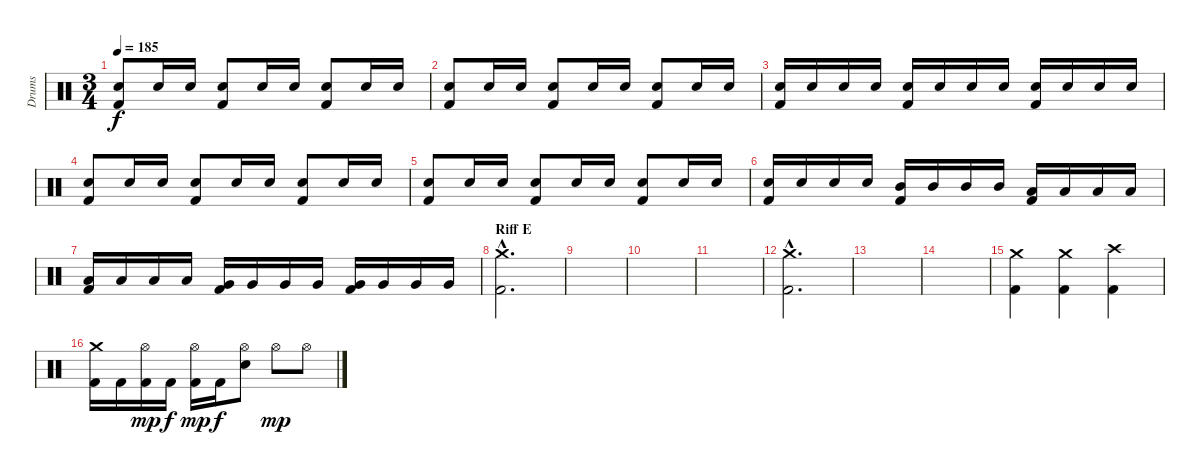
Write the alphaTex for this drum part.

\track ("Drums" "Drums") {instrument percussion}
\staff {score}
\articulation defaults
\ts (3 4)
\tempo 185
\clef neutral
\ks c
("Electric Snare (hit)" "Kick (hit) 2").8{dy f} "Electric Snare (hit)".16 "Electric Snare (hit)".16 ("Electric Snare (hit)" "Kick (hit) 2").8 "Electric Snare (hit)".16 "Electric Snare (hit)".16 ("Electric Snare (hit)" "Kick (hit) 2").8 "Electric Snare (hit)".16 "Electric Snare (hit)".16 |
("Electric Snare (hit)" "Kick (hit) 2").8 "Electric Snare (hit)".16 "Electric Snare (hit)".16 ("Electric Snare (hit)" "Kick (hit) 2").8 "Electric Snare (hit)".16 "Electric Snare (hit)".16 ("Electric Snare (hit)" "Kick (hit) 2").8 "Electric Snare (hit)".16 "Electric Snare (hit)".16 |
("Electric Snare (hit)" "Kick (hit) 2").16 "Electric Snare (hit)".16 "Electric Snare (hit)".16 "Electric Snare (hit)".16 ("Electric Snare (hit)" "Kick (hit) 2").16 "Electric Snare (hit)".16 "Electric Snare (hit)".16 "Electric Snare (hit)".16 ("Electric Snare (hit)" "Kick (hit) 2").16 "Electric Snare (hit)".16 "Electric Snare (hit)".16 "Electric Snare (hit)".16 |
("Electric Snare (hit)" "Kick (hit) 2").8 "Electric Snare (hit)".16 "Electric Snare (hit)".16 ("Electric Snare (hit)" "Kick (hit) 2").8 "Electric Snare (hit)".16 "Electric Snare (hit)".16 ("Electric Snare (hit)" "Kick (hit) 2").8 "Electric Snare (hit)".16 "Electric Snare (hit)".16 |
("Electric Snare (hit)" "Kick (hit) 2").8 "Electric Snare (hit)".16 "Electric Snare (hit)".16 ("Electric Snare (hit)" "Kick (hit) 2").8 "Electric Snare (hit)".16 "Electric Snare (hit)".16 ("Electric Snare (hit)" "Kick (hit) 2").8 "Electric Snare (hit)".16 "Electric Snare (hit)".16 |
("Electric Snare (hit)" "Kick (hit) 2").16 "Electric Snare (hit)".16 "Electric Snare (hit)".16 "Electric Snare (hit)".16 ("Mid Tom (hit)" "Kick (hit) 2").16 "Mid Tom (hit)".16 "Mid Tom (hit)".16 "Mid Tom (hit)".16 ("Low Tom (hit)" "Kick (hit) 2").16 "Low Tom (hit)".16 "Low Tom (hit)".16 "Low Tom (hit)".16 |
("Low Tom (hit)" "Kick (hit) 2").16 "Low Tom (hit)".16 "Low Tom (hit)".16 "Low Tom (hit)".16 ("Very Low Tom (hit)" "Kick (hit) 2").16 "Very Low Tom (hit)".16 "Very Low Tom (hit)".16 "Very Low Tom (hit)".16 ("Very Low Tom (hit)" "Kick (hit) 2").16 "Very Low Tom (hit)".16 "Very Low Tom (hit)".16 "Very Low Tom (hit)".16 |
\section ("" "Riff E")
("Crash medium (hit)"{hac} "Kick (hit) 2"{hac}).2{d} |
|
|
|
("Crash medium (hit)"{hac} "Kick (hit) 2"{hac}).2{d} |
|
|
("Crash medium (hit)" "Kick (hit) 2").4 ("Crash medium (hit)" "Kick (hit) 2").4 ("Crash high (hit)" "Kick (hit) 2").4 |
("Crash medium (hit)" "Kick (hit) 2").16 "Kick (hit) 2".16 ("Hi-Hat (open)" "Kick (hit) 2").16{dy mp} "Kick (hit) 2".16{dy f} ("Hi-Hat (open)" "Kick (hit) 2").16{dy mp} "Kick (hit) 2".16{dy f} ("Hi-Hat (open)" "Electric Snare (hit)").8 "Hi-Hat (open)".8{dy mp} "Hi-Hat (open)".8
